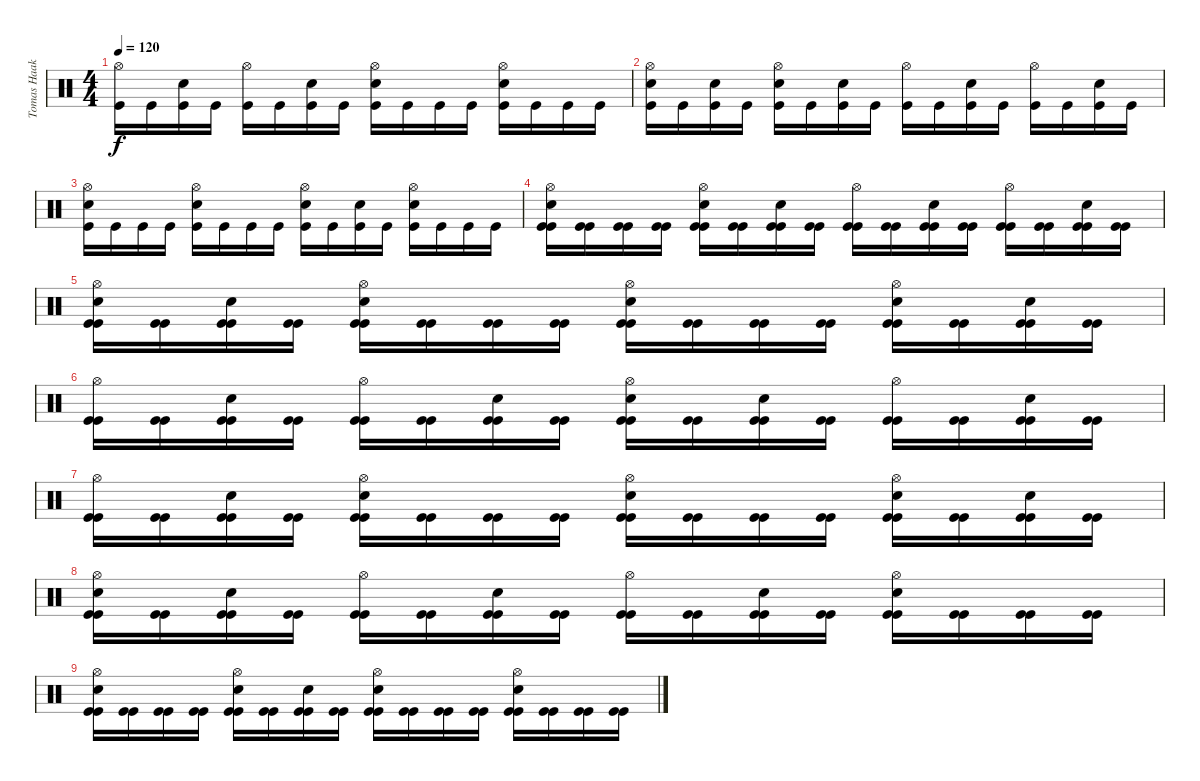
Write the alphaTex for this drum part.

\track ("Tomas Haake" "Tomas Haak") {instrument percussion}
\staff {score}
\articulation defaults
\ts (4 4)
\tempo 120
\clef neutral
\ks c
("Hi-Hat (open)" "Kick (hit)").16{dy f} "Kick (hit)".16 ("Electric Snare (hit)" "Kick (hit)").16 "Kick (hit)".16 ("Hi-Hat (open)" "Kick (hit)").16 "Kick (hit)".16 ("Electric Snare (hit)" "Kick (hit)").16 "Kick (hit)".16 ("Hi-Hat (open)" "Electric Snare (hit)" "Kick (hit)").16 "Kick (hit)".16 "Kick (hit)".16 "Kick (hit)".16 ("Hi-Hat (open)" "Electric Snare (hit)" "Kick (hit)").16 "Kick (hit)".16 "Kick (hit)".16 "Kick (hit)".16 |
("Hi-Hat (open)" "Electric Snare (hit)" "Kick (hit)").16 "Kick (hit)".16 ("Electric Snare (hit)" "Kick (hit)").16 "Kick (hit)".16 ("Hi-Hat (open)" "Electric Snare (hit)" "Kick (hit)").16 "Kick (hit)".16 ("Electric Snare (hit)" "Kick (hit)").16 "Kick (hit)".16 ("Hi-Hat (open)" "Kick (hit)").16 "Kick (hit)".16 ("Electric Snare (hit)" "Kick (hit)").16 "Kick (hit)".16 ("Hi-Hat (open)" "Kick (hit)").16 "Kick (hit)".16 ("Electric Snare (hit)" "Kick (hit)").16 "Kick (hit)".16 |
("Hi-Hat (open)" "Electric Snare (hit)" "Kick (hit)").16 "Kick (hit)".16 "Kick (hit)".16 "Kick (hit)".16 ("Hi-Hat (open)" "Electric Snare (hit)" "Kick (hit)").16 "Kick (hit)".16 "Kick (hit)".16 "Kick (hit)".16 ("Hi-Hat (open)" "Electric Snare (hit)" "Kick (hit)").16 "Kick (hit)".16 ("Electric Snare (hit)" "Kick (hit)").16 "Kick (hit)".16 ("Hi-Hat (open)" "Electric Snare (hit)" "Kick (hit)").16 "Kick (hit)".16 "Kick (hit)".16 "Kick (hit)".16 |
("Hi-Hat (open)" "Electric Snare (hit)" "Kick (hit)" "Kick (hit)").16 ("Kick (hit)" "Kick (hit)").16 ("Kick (hit)" "Kick (hit)").16 ("Kick (hit)" "Kick (hit)").16 ("Hi-Hat (open)" "Electric Snare (hit)" "Kick (hit)" "Kick (hit)").16 ("Kick (hit)" "Kick (hit)").16 ("Electric Snare (hit)" "Kick (hit)" "Kick (hit)").16 ("Kick (hit)" "Kick (hit)").16 ("Hi-Hat (open)" "Kick (hit)" "Kick (hit)").16 ("Kick (hit)" "Kick (hit)").16 ("Electric Snare (hit)" "Kick (hit)" "Kick (hit)").16 ("Kick (hit)" "Kick (hit)").16 ("Hi-Hat (open)" "Kick (hit)" "Kick (hit)").16 ("Kick (hit)" "Kick (hit)").16 ("Electric Snare (hit)" "Kick (hit)" "Kick (hit)").16 ("Kick (hit)" "Kick (hit)").16 |
("Hi-Hat (open)" "Electric Snare (hit)" "Kick (hit)" "Kick (hit)").16 ("Kick (hit)" "Kick (hit)").16 ("Electric Snare (hit)" "Kick (hit)" "Kick (hit)").16 ("Kick (hit)" "Kick (hit)").16 ("Hi-Hat (open)" "Electric Snare (hit)" "Kick (hit)" "Kick (hit)").16 ("Kick (hit)" "Kick (hit)").16 ("Kick (hit)" "Kick (hit)").16 ("Kick (hit)" "Kick (hit)").16 ("Hi-Hat (open)" "Electric Snare (hit)" "Kick (hit)" "Kick (hit)").16 ("Kick (hit)" "Kick (hit)").16 ("Kick (hit)" "Kick (hit)").16 ("Kick (hit)" "Kick (hit)").16 ("Hi-Hat (open)" "Electric Snare (hit)" "Kick (hit)" "Kick (hit)").16 ("Kick (hit)" "Kick (hit)").16 ("Electric Snare (hit)" "Kick (hit)" "Kick (hit)").16 ("Kick (hit)" "Kick (hit)").16 |
("Hi-Hat (open)" "Kick (hit)" "Kick (hit)").16 ("Kick (hit)" "Kick (hit)").16 ("Electric Snare (hit)" "Kick (hit)" "Kick (hit)").16 ("Kick (hit)" "Kick (hit)").16 ("Hi-Hat (open)" "Kick (hit)" "Kick (hit)").16 ("Kick (hit)" "Kick (hit)").16 ("Electric Snare (hit)" "Kick (hit)" "Kick (hit)").16 ("Kick (hit)" "Kick (hit)").16 ("Hi-Hat (open)" "Electric Snare (hit)" "Kick (hit)" "Kick (hit)").16 ("Kick (hit)" "Kick (hit)").16 ("Electric Snare (hit)" "Kick (hit)" "Kick (hit)").16 ("Kick (hit)" "Kick (hit)").16 ("Hi-Hat (open)" "Kick (hit)" "Kick (hit)").16 ("Kick (hit)" "Kick (hit)").16 ("Electric Snare (hit)" "Kick (hit)" "Kick (hit)").16 ("Kick (hit)" "Kick (hit)").16 |
("Hi-Hat (open)" "Kick (hit)" "Kick (hit)").16 ("Kick (hit)" "Kick (hit)").16 ("Electric Snare (hit)" "Kick (hit)" "Kick (hit)").16 ("Kick (hit)" "Kick (hit)").16 ("Hi-Hat (open)" "Electric Snare (hit)" "Kick (hit)" "Kick (hit)").16 ("Kick (hit)" "Kick (hit)").16 ("Kick (hit)" "Kick (hit)").16 ("Kick (hit)" "Kick (hit)").16 ("Hi-Hat (open)" "Electric Snare (hit)" "Kick (hit)" "Kick (hit)").16 ("Kick (hit)" "Kick (hit)").16 ("Kick (hit)" "Kick (hit)").16 ("Kick (hit)" "Kick (hit)").16 ("Hi-Hat (open)" "Electric Snare (hit)" "Kick (hit)" "Kick (hit)").16 ("Kick (hit)" "Kick (hit)").16 ("Electric Snare (hit)" "Kick (hit)" "Kick (hit)").16 ("Kick (hit)" "Kick (hit)").16 |
("Hi-Hat (open)" "Electric Snare (hit)" "Kick (hit)" "Kick (hit)").16 ("Kick (hit)" "Kick (hit)").16 ("Electric Snare (hit)" "Kick (hit)" "Kick (hit)").16 ("Kick (hit)" "Kick (hit)").16 ("Hi-Hat (open)" "Kick (hit)" "Kick (hit)").16 ("Kick (hit)" "Kick (hit)").16 ("Electric Snare (hit)" "Kick (hit)" "Kick (hit)").16 ("Kick (hit)" "Kick (hit)").16 ("Hi-Hat (open)" "Kick (hit)" "Kick (hit)").16 ("Kick (hit)" "Kick (hit)").16 ("Electric Snare (hit)" "Kick (hit)" "Kick (hit)").16 ("Kick (hit)" "Kick (hit)").16 ("Hi-Hat (open)" "Electric Snare (hit)" "Kick (hit)" "Kick (hit)").16 ("Kick (hit)" "Kick (hit)").16 ("Kick (hit)" "Kick (hit)").16 ("Kick (hit)" "Kick (hit)").16 |
("Hi-Hat (open)" "Electric Snare (hit)" "Kick (hit)" "Kick (hit)").16 ("Kick (hit)" "Kick (hit)").16 ("Kick (hit)" "Kick (hit)").16 ("Kick (hit)" "Kick (hit)").16 ("Hi-Hat (open)" "Electric Snare (hit)" "Kick (hit)" "Kick (hit)").16 ("Kick (hit)" "Kick (hit)").16 ("Electric Snare (hit)" "Kick (hit)" "Kick (hit)").16 ("Kick (hit)" "Kick (hit)").16 ("Hi-Hat (open)" "Electric Snare (hit)" "Kick (hit)" "Kick (hit)").16 ("Kick (hit)" "Kick (hit)").16 ("Kick (hit)" "Kick (hit)").16 ("Kick (hit)" "Kick (hit)").16 ("Hi-Hat (open)" "Electric Snare (hit)" "Kick (hit)" "Kick (hit)").16 ("Kick (hit)" "Kick (hit)").16 ("Kick (hit)" "Kick (hit)").16 ("Kick (hit)" "Kick (hit)").16
